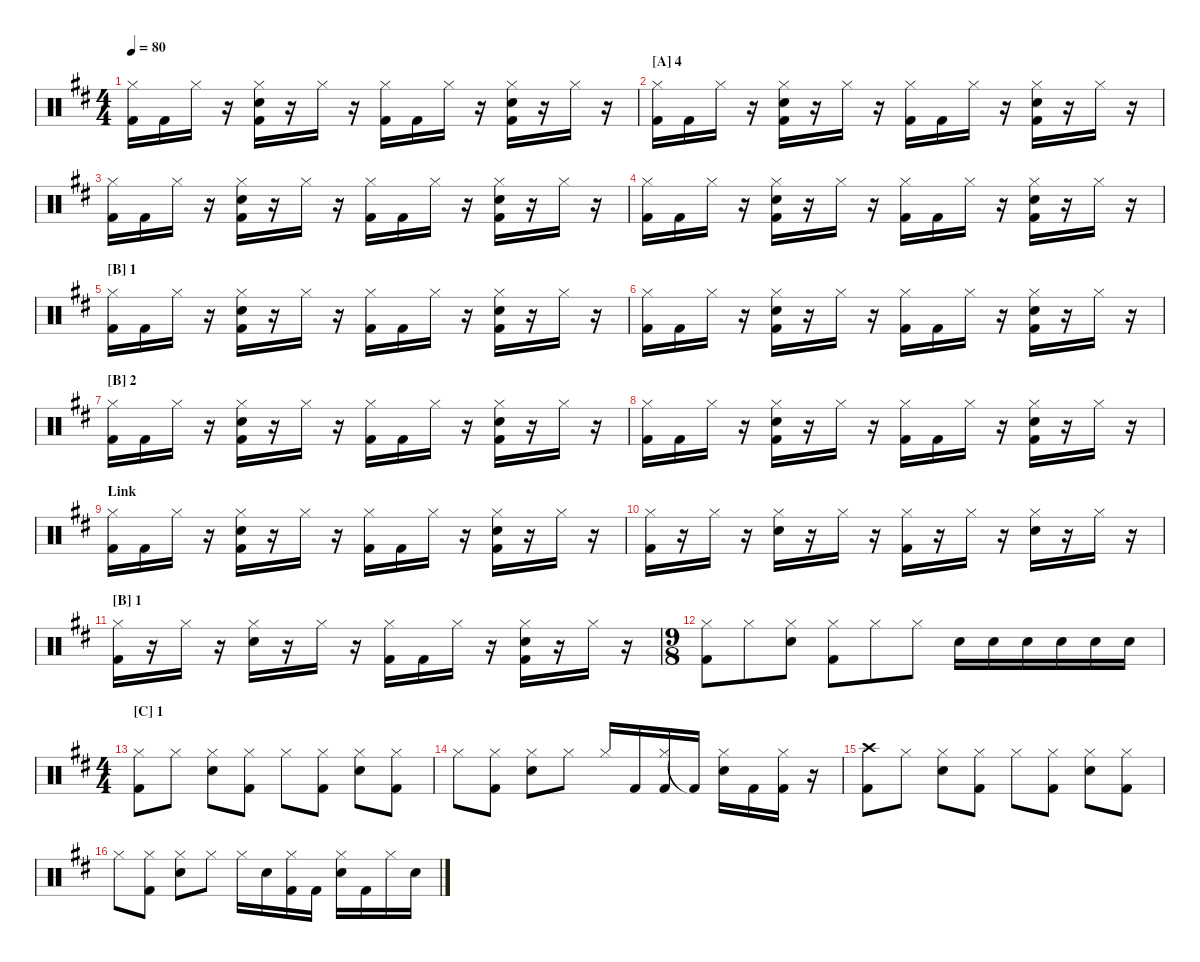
\hideDynamics
\bracketExtendMode nobrackets
\singleTrackTrackNamePolicy hidden
\multiTrackTrackNamePolicy hidden
\otherSystemsTrackNameOrientation horizontal
\track ("Drumkit" "Drums") {instrument percussion}
\staff {score}
\articulation defaults
\ts (4 4)
\tempo 80
\clef neutral
\ks d
("Hi-Hat (closed)"{acc forcenatural} "Kick (hit) 2"{acc forcenatural}).16{dy f beam Down} "Kick (hit) 2"{acc forcenatural}.16{beam Down} "Hi-Hat (closed)"{acc forcenatural}.16{beam Down} r.16{beam Down} ("Hi-Hat (closed)"{acc forcenatural} "Snare (hit) 2"{acc forcenatural} "Kick (hit) 2"{acc forcenatural}).16{beam Down} r.16{beam Down} "Hi-Hat (closed)"{acc forcenatural}.16{beam Down} r.16{beam Down} ("Hi-Hat (closed)"{acc forcenatural} "Kick (hit) 2"{acc forcenatural}).16{beam Down} "Kick (hit) 2"{acc forcenatural}.16{beam Down} "Hi-Hat (closed)"{acc forcenatural}.16{beam Down} r.16{beam Down} ("Hi-Hat (closed)"{acc forcenatural} "Snare (hit) 2"{acc forcenatural} "Kick (hit) 2"{acc forcenatural}).16{beam Down} r.16{beam Down} "Hi-Hat (closed)"{acc forcenatural}.16{beam Down} r.16{beam Down} |
\section ("A" "4")
("Hi-Hat (closed)"{acc forcenatural} "Kick (hit) 2"{acc forcenatural}).16{beam Down} "Kick (hit) 2"{acc forcenatural}.16{beam Down} "Hi-Hat (closed)"{acc forcenatural}.16{beam Down} r.16{beam Down} ("Hi-Hat (closed)"{acc forcenatural} "Snare (hit) 2"{acc forcenatural} "Kick (hit) 2"{acc forcenatural}).16{beam Down} r.16{beam Down} "Hi-Hat (closed)"{acc forcenatural}.16{beam Down} r.16{beam Down} ("Hi-Hat (closed)"{acc forcenatural} "Kick (hit) 2"{acc forcenatural}).16{beam Down} "Kick (hit) 2"{acc forcenatural}.16{beam Down} "Hi-Hat (closed)"{acc forcenatural}.16{beam Down} r.16{beam Down} ("Hi-Hat (closed)"{acc forcenatural} "Snare (hit) 2"{acc forcenatural} "Kick (hit) 2"{acc forcenatural}).16{beam Down} r.16{beam Down} "Hi-Hat (closed)"{acc forcenatural}.16{beam Down} r.16{beam Down} |
("Hi-Hat (closed)"{acc forcenatural} "Kick (hit) 2"{acc forcenatural}).16{beam Down} "Kick (hit) 2"{acc forcenatural}.16{beam Down} "Hi-Hat (closed)"{acc forcenatural}.16{beam Down} r.16{beam Down} ("Hi-Hat (closed)"{acc forcenatural} "Snare (hit) 2"{acc forcenatural} "Kick (hit) 2"{acc forcenatural}).16{beam Down} r.16{beam Down} "Hi-Hat (closed)"{acc forcenatural}.16{beam Down} r.16{beam Down} ("Hi-Hat (closed)"{acc forcenatural} "Kick (hit) 2"{acc forcenatural}).16{beam Down} "Kick (hit) 2"{acc forcenatural}.16{beam Down} "Hi-Hat (closed)"{acc forcenatural}.16{beam Down} r.16{beam Down} ("Hi-Hat (closed)"{acc forcenatural} "Snare (hit) 2"{acc forcenatural} "Kick (hit) 2"{acc forcenatural}).16{beam Down} r.16{beam Down} "Hi-Hat (closed)"{acc forcenatural}.16{beam Down} r.16{beam Down} |
("Hi-Hat (closed)"{acc forcenatural} "Kick (hit) 2"{acc forcenatural}).16{beam Down} "Kick (hit) 2"{acc forcenatural}.16{beam Down} "Hi-Hat (closed)"{acc forcenatural}.16{beam Down} r.16{beam Down} ("Hi-Hat (closed)"{acc forcenatural} "Snare (hit) 2"{acc forcenatural} "Kick (hit) 2"{acc forcenatural}).16{beam Down} r.16{beam Down} "Hi-Hat (closed)"{acc forcenatural}.16{beam Down} r.16{beam Down} ("Hi-Hat (closed)"{acc forcenatural} "Kick (hit) 2"{acc forcenatural}).16{beam Down} "Kick (hit) 2"{acc forcenatural}.16{beam Down} "Hi-Hat (closed)"{acc forcenatural}.16{beam Down} r.16{beam Down} ("Hi-Hat (closed)"{acc forcenatural} "Snare (hit) 2"{acc forcenatural} "Kick (hit) 2"{acc forcenatural}).16{beam Down} r.16{beam Down} "Hi-Hat (closed)"{acc forcenatural}.16{beam Down} r.16{beam Down} |
\section ("B" "1")
("Hi-Hat (closed)"{acc forcenatural} "Kick (hit) 2"{acc forcenatural}).16{beam Down} "Kick (hit) 2"{acc forcenatural}.16{beam Down} "Hi-Hat (closed)"{acc forcenatural}.16{beam Down} r.16{beam Down} ("Hi-Hat (closed)"{acc forcenatural} "Snare (hit) 2"{acc forcenatural} "Kick (hit) 2"{acc forcenatural}).16{beam Down} r.16{beam Down} "Hi-Hat (closed)"{acc forcenatural}.16{beam Down} r.16{beam Down} ("Hi-Hat (closed)"{acc forcenatural} "Kick (hit) 2"{acc forcenatural}).16{beam Down} "Kick (hit) 2"{acc forcenatural}.16{beam Down} "Hi-Hat (closed)"{acc forcenatural}.16{beam Down} r.16{beam Down} ("Hi-Hat (closed)"{acc forcenatural} "Snare (hit) 2"{acc forcenatural} "Kick (hit) 2"{acc forcenatural}).16{beam Down} r.16{beam Down} "Hi-Hat (closed)"{acc forcenatural}.16{beam Down} r.16{beam Down} |
("Hi-Hat (closed)"{acc forcenatural} "Kick (hit) 2"{acc forcenatural}).16{beam Down} "Kick (hit) 2"{acc forcenatural}.16{beam Down} "Hi-Hat (closed)"{acc forcenatural}.16{beam Down} r.16{beam Down} ("Hi-Hat (closed)"{acc forcenatural} "Snare (hit) 2"{acc forcenatural} "Kick (hit) 2"{acc forcenatural}).16{beam Down} r.16{beam Down} "Hi-Hat (closed)"{acc forcenatural}.16{beam Down} r.16{beam Down} ("Hi-Hat (closed)"{acc forcenatural} "Kick (hit) 2"{acc forcenatural}).16{beam Down} "Kick (hit) 2"{acc forcenatural}.16{beam Down} "Hi-Hat (closed)"{acc forcenatural}.16{beam Down} r.16{beam Down} ("Hi-Hat (closed)"{acc forcenatural} "Snare (hit) 2"{acc forcenatural} "Kick (hit) 2"{acc forcenatural}).16{beam Down} r.16{beam Down} "Hi-Hat (closed)"{acc forcenatural}.16{beam Down} r.16{beam Down} |
\section ("B" "2")
("Hi-Hat (closed)"{acc forcenatural} "Kick (hit) 2"{acc forcenatural}).16{beam Down} "Kick (hit) 2"{acc forcenatural}.16{beam Down} "Hi-Hat (closed)"{acc forcenatural}.16{beam Down} r.16{beam Down} ("Hi-Hat (closed)"{acc forcenatural} "Snare (hit) 2"{acc forcenatural} "Kick (hit) 2"{acc forcenatural}).16{beam Down} r.16{beam Down} "Hi-Hat (closed)"{acc forcenatural}.16{beam Down} r.16{beam Down} ("Hi-Hat (closed)"{acc forcenatural} "Kick (hit) 2"{acc forcenatural}).16{beam Down} "Kick (hit) 2"{acc forcenatural}.16{beam Down} "Hi-Hat (closed)"{acc forcenatural}.16{beam Down} r.16{beam Down} ("Hi-Hat (closed)"{acc forcenatural} "Snare (hit) 2"{acc forcenatural} "Kick (hit) 2"{acc forcenatural}).16{beam Down} r.16{beam Down} "Hi-Hat (closed)"{acc forcenatural}.16{beam Down} r.16{beam Down} |
("Hi-Hat (closed)"{acc forcenatural} "Kick (hit) 2"{acc forcenatural}).16{beam Down} "Kick (hit) 2"{acc forcenatural}.16{beam Down} "Hi-Hat (closed)"{acc forcenatural}.16{beam Down} r.16{beam Down} ("Hi-Hat (closed)"{acc forcenatural} "Snare (hit) 2"{acc forcenatural} "Kick (hit) 2"{acc forcenatural}).16{beam Down} r.16{beam Down} "Hi-Hat (closed)"{acc forcenatural}.16{beam Down} r.16{beam Down} ("Hi-Hat (closed)"{acc forcenatural} "Kick (hit) 2"{acc forcenatural}).16{beam Down} "Kick (hit) 2"{acc forcenatural}.16{beam Down} "Hi-Hat (closed)"{acc forcenatural}.16{beam Down} r.16{beam Down} ("Hi-Hat (closed)"{acc forcenatural} "Snare (hit) 2"{acc forcenatural} "Kick (hit) 2"{acc forcenatural}).16{beam Down} r.16{beam Down} "Hi-Hat (closed)"{acc forcenatural}.16{beam Down} r.16{beam Down} |
\section ("" "Link")
("Hi-Hat (closed)"{acc forcenatural} "Kick (hit) 2"{acc forcenatural}).16{beam Down} "Kick (hit) 2"{acc forcenatural}.16{beam Down} "Hi-Hat (closed)"{acc forcenatural}.16{beam Down} r.16{beam Down} ("Hi-Hat (closed)"{acc forcenatural} "Snare (hit) 2"{acc forcenatural} "Kick (hit) 2"{acc forcenatural}).16{beam Down} r.16{beam Down} "Hi-Hat (closed)"{acc forcenatural}.16{beam Down} r.16{beam Down} ("Hi-Hat (closed)"{acc forcenatural} "Kick (hit) 2"{acc forcenatural}).16{beam Down} "Kick (hit) 2"{acc forcenatural}.16{beam Down} "Hi-Hat (closed)"{acc forcenatural}.16{beam Down} r.16{beam Down} ("Hi-Hat (closed)"{acc forcenatural} "Snare (hit) 2"{acc forcenatural} "Kick (hit) 2"{acc forcenatural}).16{beam Down} r.16{beam Down} "Hi-Hat (closed)"{acc forcenatural}.16{beam Down} r.16{beam Down} |
("Hi-Hat (closed)"{acc forcenatural} "Kick (hit) 2"{acc forcenatural}).16{beam Down} r.16{beam Down} "Hi-Hat (closed)"{acc forcenatural}.16{beam Down} r.16{beam Down} ("Hi-Hat (closed)"{acc forcenatural} "Snare (hit) 2"{acc forcenatural}).16{beam Down} r.16{beam Down} "Hi-Hat (closed)"{acc forcenatural}.16{beam Down} r.16{beam Down} ("Hi-Hat (closed)"{acc forcenatural} "Kick (hit) 2"{acc forcenatural}).16{beam Down} r.16{beam Down} "Hi-Hat (closed)"{acc forcenatural}.16{beam Down} r.16{beam Down} ("Hi-Hat (closed)"{acc forcenatural} "Snare (hit) 2"{acc forcenatural}).16{beam Down} r.16{beam Down} "Hi-Hat (closed)"{acc forcenatural}.16{beam Down} r.16{beam Down} |
\section ("B" "1")
("Hi-Hat (closed)"{acc forcenatural} "Kick (hit) 2"{acc forcenatural}).16{beam Down} r.16{beam Down} "Hi-Hat (closed)"{acc forcenatural}.16{beam Down} r.16{beam Down} ("Hi-Hat (closed)"{acc forcenatural} "Snare (hit) 2"{acc forcenatural}).16{beam Down} r.16{beam Down} "Hi-Hat (closed)"{acc forcenatural}.16{beam Down} r.16{beam Down} ("Hi-Hat (closed)"{acc forcenatural} "Kick (hit) 2"{acc forcenatural}).16{beam Down} "Kick (hit) 2"{acc forcenatural}.16{beam Down} "Hi-Hat (closed)"{acc forcenatural}.16{beam Down} r.16{beam Down} ("Hi-Hat (closed)"{acc forcenatural} "Snare (hit) 2"{acc forcenatural} "Kick (hit) 2"{acc forcenatural}).16{beam Down} r.16{beam Down} "Hi-Hat (closed)"{acc forcenatural}.16{beam Down} r.16{beam Down} |
\ts (9 8)
("Hi-Hat (closed)"{acc forcenatural} "Kick (hit) 2"{acc forcenatural}).8{beam Down} "Hi-Hat (closed)"{acc forcenatural}.8{beam Down} ("Hi-Hat (closed)"{acc forcenatural} "Snare (hit) 2"{acc forcenatural}).8{beam Down} ("Hi-Hat (closed)"{acc forcenatural} "Kick (hit) 2"{acc forcenatural}).8{beam Down} "Hi-Hat (closed)"{acc forcenatural}.8{beam Down} "Hi-Hat (closed)"{acc forcenatural}.8{beam Down} "Snare (hit) 2"{acc forcenatural}.16{beam Down} "Snare (hit) 2"{acc forcenatural}.16{beam Down} "Snare (hit) 2"{acc forcenatural}.16{beam Down} "Snare (hit) 2"{acc forcenatural}.16{beam Down} "Snare (hit) 2"{acc forcenatural}.16{beam Down} "Snare (hit) 2"{acc forcenatural}.16{beam Down} |
\ts (4 4)
\section ("C" "1")
("Hi-Hat (closed)"{acc forcenatural} "Kick (hit) 2"{acc forcenatural}).8{beam Down} "Hi-Hat (closed)"{acc forcenatural}.8{beam Down} ("Hi-Hat (closed)"{acc forcenatural} "Snare (hit) 2"{acc forcenatural}).8{beam Down} ("Hi-Hat (closed)"{acc forcenatural} "Kick (hit) 2"{acc forcenatural}).8{beam Down} "Hi-Hat (closed)"{acc forcenatural}.8{beam Down} ("Hi-Hat (closed)"{acc forcenatural} "Kick (hit) 2"{acc forcenatural}).8{beam Down} ("Hi-Hat (closed)"{acc forcenatural} "Snare (hit) 2"{acc forcenatural}).8{beam Down} ("Hi-Hat (closed)"{acc forcenatural} "Kick (hit) 2"{acc forcenatural}).8{beam Down} |
"Hi-Hat (closed)"{acc forcenatural}.8{beam Down} ("Hi-Hat (closed)"{acc forcenatural} "Kick (hit) 2"{acc forcenatural}).8{beam Down} ("Hi-Hat (closed)"{acc forcenatural} "Snare (hit) 2"{acc forcenatural}).8{beam Down} "Hi-Hat (closed)"{acc forcenatural}.8{beam Down} "Hi-Hat (closed)"{acc forcenatural}.16{beam Up} "Kick (hit) 2"{acc forcenatural}.16{beam Up} ("Hi-Hat (closed)"{acc forcenatural} "Kick (hit) 2"{acc forcenatural}).16{beam Up} "Kick (hit) 2"{t acc forcenatural}.16{beam Up} ("Hi-Hat (closed)"{acc forcenatural} "Snare (hit) 2"{acc forcenatural}).16{beam Down} "Kick (hit) 2"{acc forcenatural}.16{beam Down} ("Hi-Hat (closed)"{acc forcenatural} "Kick (hit) 2"{acc forcenatural}).16{beam Down} r.16{beam Down} |
("Crash high (hit)"{acc forcenatural} "Kick (hit) 2"{acc forcenatural}).8{beam Down} "Hi-Hat (closed)"{acc forcenatural}.8{beam Down} ("Hi-Hat (closed)"{acc forcenatural} "Snare (hit) 2"{acc forcenatural}).8{beam Down} ("Hi-Hat (closed)"{acc forcenatural} "Kick (hit) 2"{acc forcenatural}).8{beam Down} "Hi-Hat (closed)"{acc forcenatural}.8{beam Down} ("Hi-Hat (closed)"{acc forcenatural} "Kick (hit) 2"{acc forcenatural}).8{beam Down} ("Hi-Hat (closed)"{acc forcenatural} "Snare (hit) 2"{acc forcenatural}).8{beam Down} ("Hi-Hat (closed)"{acc forcenatural} "Kick (hit) 2"{acc forcenatural}).8{beam Down} |
"Hi-Hat (closed)"{acc forcenatural}.8{beam Down} ("Hi-Hat (closed)"{acc forcenatural} "Kick (hit) 2"{acc forcenatural}).8{beam Down} ("Hi-Hat (closed)"{acc forcenatural} "Snare (hit) 2"{acc forcenatural}).8{beam Down} "Hi-Hat (closed)"{acc forcenatural}.8{beam Down} "Hi-Hat (closed)"{acc forcenatural}.16{beam Down} "Snare (hit) 2"{acc forcenatural}.16{beam Down} ("Hi-Hat (closed)"{acc forcenatural} "Kick (hit) 2"{acc forcenatural}).16{beam Down} "Kick (hit) 2"{acc forcenatural}.16{beam Down} ("Hi-Hat (closed)"{acc forcenatural} "Snare (hit) 2"{acc forcenatural}).16{beam Down} "Kick (hit) 2"{acc forcenatural}.16{beam Down} "Hi-Hat (closed)"{acc forcenatural}.16{beam Down} "Snare (hit) 2"{acc forcenatural}.16{beam Down}
